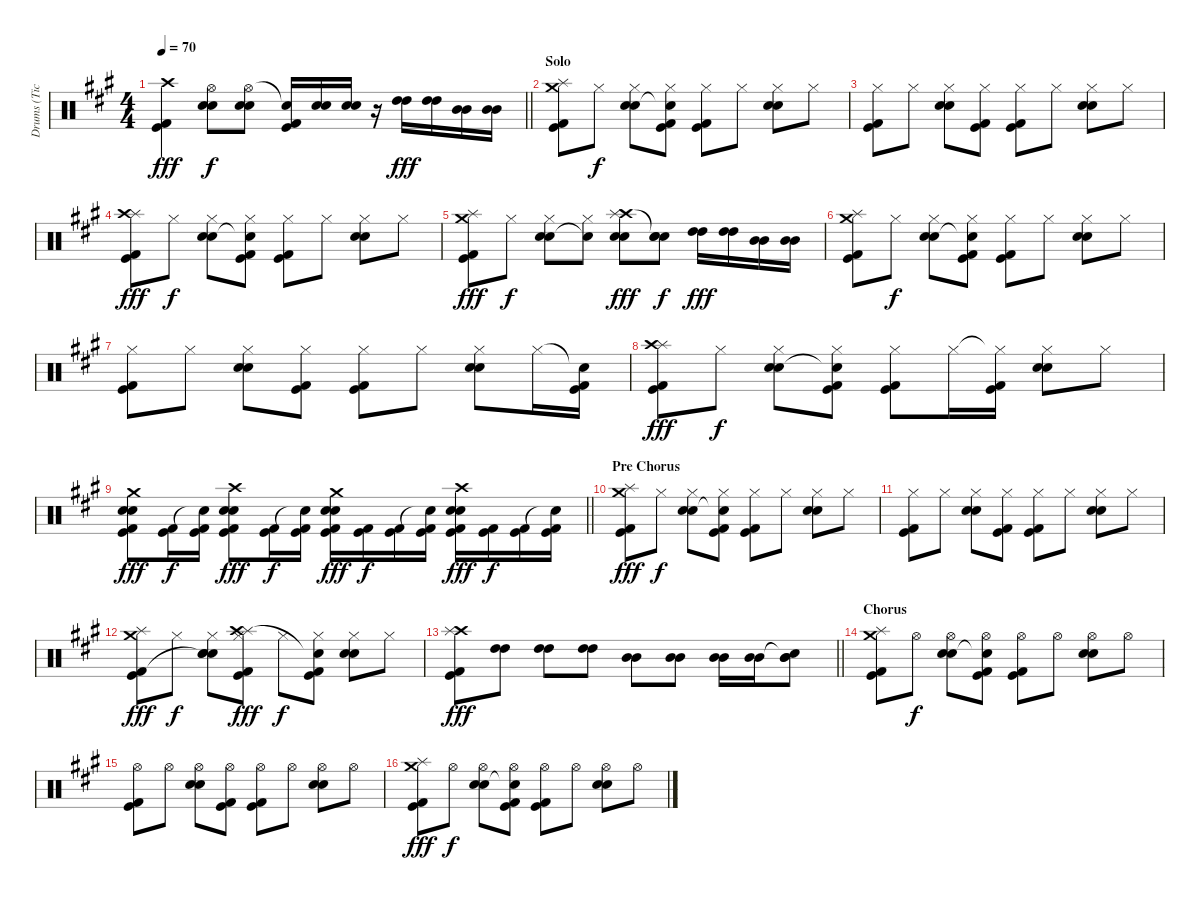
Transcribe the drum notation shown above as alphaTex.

\track ("Drums (Tico Torres)" "Drums (Tic") {instrument percussion}
\staff {score}
\articulation defaults
\ts (4 4)
\tempo 70
\clef neutral
\barLineRight lightlight
\ks a
("Crash high (hit)" "Kick (hit)" "Kick (hit) 2").4{dy fff} ("Hi-Hat (open)" "Electric Snare (hit)" "Snare (hit) 2").8{dy f} ("Hi-Hat (open)" "Electric Snare (hit)" "Snare (hit) 2").8 ("Snare (hit)"{t} "Kick (hit)" "Kick (hit) 2").16 ("Electric Snare (hit)" "Snare (hit) 2").16 ("Electric Snare (hit)" "Snare (hit) 2").16 r.16 ("High Tom (hit)" "High Tom (hit)").16{dy fff} ("High Tom (hit)" "High Tom (hit)").16 ("Mid Tom (hit)" "Mid Tom (hit)").16 ("Mid Tom (hit)" "Mid Tom (hit)").16 |
\section ("" "Solo")
("Splash (hit)" "Crash medium (hit)" "Kick (hit)" "Kick (hit) 2").8 "Hi-Hat (closed)".8{dy f} ("Hi-Hat (closed)" "Electric Snare (hit)" "Snare (hit) 2").8 ("Hi-Hat (closed)" "Snare (hit)"{t} "Kick (hit)" "Kick (hit) 2").8 ("Hi-Hat (closed)" "Kick (hit)" "Kick (hit) 2").8 "Hi-Hat (closed)".8 ("Hi-Hat (closed)" "Electric Snare (hit)" "Snare (hit) 2").8 "Hi-Hat (closed)".8 |
("Hi-Hat (closed)" "Kick (hit)" "Kick (hit) 2").8 "Hi-Hat (closed)".8 ("Hi-Hat (closed)" "Electric Snare (hit)" "Snare (hit) 2").8 ("Hi-Hat (closed)" "Kick (hit)" "Kick (hit) 2").8 ("Hi-Hat (closed)" "Kick (hit)" "Kick (hit) 2").8 "Hi-Hat (closed)".8 ("Hi-Hat (closed)" "Electric Snare (hit)" "Snare (hit) 2").8 "Hi-Hat (closed)".8 |
("Splash (hit)" "Crash high (hit)" "Kick (hit)" "Kick (hit) 2").8{dy fff} "Hi-Hat (closed)".8{dy f} ("Hi-Hat (closed)" "Electric Snare (hit)" "Snare (hit) 2").8 ("Hi-Hat (closed)" "Snare (hit)"{t} "Kick (hit)" "Kick (hit) 2").8 ("Hi-Hat (closed)" "Kick (hit)" "Kick (hit) 2").8 "Hi-Hat (closed)".8 ("Hi-Hat (closed)" "Electric Snare (hit)" "Snare (hit) 2").8 "Hi-Hat (closed)".8 |
("Splash (hit)" "Crash medium (hit)" "Kick (hit)" "Kick (hit) 2").8{dy fff} "Hi-Hat (closed)".8{dy f} ("Hi-Hat (closed)" "Electric Snare (hit)" "Snare (hit) 2").8 ("Hi-Hat (closed)" "Snare (hit)"{t}).8 ("Electric Snare (hit)" "Snare (hit) 2" "Crash high (hit)" "Splash (hit)").8{dy fff} ("Electric Snare (hit)" "Snare (hit) 2" "Snare (hit)"{t}).8{dy f} ("High Tom (hit)" "High Tom (hit)").16{dy fff} ("High Tom (hit)" "High Tom (hit)").16 ("Mid Tom (hit)" "Mid Tom (hit)").16 ("Mid Tom (hit)" "Mid Tom (hit)").16 |
("Splash (hit)" "Crash medium (hit)" "Kick (hit)" "Kick (hit) 2").8 "Hi-Hat (closed)".8{dy f} ("Hi-Hat (closed)" "Electric Snare (hit)" "Snare (hit) 2").8 ("Hi-Hat (closed)" "Snare (hit)"{t} "Kick (hit)" "Kick (hit) 2").8 ("Hi-Hat (closed)" "Kick (hit)" "Kick (hit) 2").8 "Hi-Hat (closed)".8 ("Hi-Hat (closed)" "Electric Snare (hit)" "Snare (hit) 2").8 "Hi-Hat (closed)".8 |
("Hi-Hat (closed)" "Kick (hit)" "Kick (hit) 2").8 "Hi-Hat (closed)".8 ("Hi-Hat (closed)" "Electric Snare (hit)" "Snare (hit) 2").8 ("Hi-Hat (closed)" "Kick (hit)" "Kick (hit) 2").8 ("Hi-Hat (closed)" "Kick (hit)" "Kick (hit) 2").8 "Hi-Hat (closed)".8 ("Hi-Hat (closed)" "Electric Snare (hit)" "Snare (hit) 2").8 "Hi-Hat (closed)".16 ("Snare (hit)"{t} "Kick (hit)" "Kick (hit) 2").16 |
("Splash (hit)" "Crash high (hit)" "Kick (hit)" "Kick (hit) 2").8{dy fff} "Hi-Hat (closed)".8{dy f} ("Hi-Hat (closed)" "Electric Snare (hit)" "Snare (hit) 2").8 ("Hi-Hat (closed)" "Snare (hit)"{t} "Kick (hit)" "Kick (hit) 2").8 ("Hi-Hat (closed)" "Kick (hit)" "Kick (hit) 2").8 "Hi-Hat (closed)".16 ("Hi-Hat (closed)"{t} "Kick (hit)" "Kick (hit) 2").16 ("Hi-Hat (closed)" "Electric Snare (hit)" "Snare (hit) 2").8 "Hi-Hat (closed)".8 |
\barLineRight lightlight
("Electric Snare (hit)" "Snare (hit) 2" "Crash medium (hit)" "Kick (hit)" "Kick (hit) 2").8{dy fff} ("Kick (hit)" "Kick (hit) 2").16{dy f} ("Snare (hit)"{t} "Kick (hit)" "Kick (hit) 2").16 ("Electric Snare (hit)" "Snare (hit) 2" "Crash high (hit)" "Kick (hit)" "Kick (hit) 2").8{dy fff} ("Kick (hit)" "Kick (hit) 2").16{dy f} ("Snare (hit)"{t} "Kick (hit)" "Kick (hit) 2").16 ("Electric Snare (hit)" "Snare (hit) 2" "Crash medium (hit)" "Kick (hit)" "Kick (hit) 2").16{dy fff} ("Kick (hit)" "Kick (hit) 2").16{dy f} ("Kick (hit)" "Kick (hit) 2").16 ("Snare (hit)"{t} "Kick (hit)" "Kick (hit) 2").16 ("Electric Snare (hit)" "Snare (hit) 2" "Crash high (hit)" "Kick (hit)" "Kick (hit) 2").16{dy fff} ("Kick (hit)" "Kick (hit) 2").16{dy f} ("Kick (hit)" "Kick (hit) 2").16 ("Snare (hit)"{t} "Kick (hit)" "Kick (hit) 2").16 |
\section ("" "Pre Chorus")
("Splash (hit)" "Crash medium (hit)" "Kick (hit)" "Kick (hit) 2").8{dy fff} "Hi-Hat (closed)".8{dy f} ("Hi-Hat (closed)" "Electric Snare (hit)" "Snare (hit) 2").8 ("Hi-Hat (closed)" "Snare (hit)"{t} "Kick (hit)" "Kick (hit) 2").8 ("Hi-Hat (closed)" "Kick (hit)" "Kick (hit) 2").8 "Hi-Hat (closed)".8 ("Hi-Hat (closed)" "Electric Snare (hit)" "Snare (hit) 2").8 "Hi-Hat (closed)".8 |
("Hi-Hat (closed)" "Kick (hit)" "Kick (hit) 2").8 "Hi-Hat (closed)".8 ("Hi-Hat (closed)" "Electric Snare (hit)" "Snare (hit) 2").8 ("Hi-Hat (closed)" "Kick (hit)" "Kick (hit) 2").8 ("Hi-Hat (closed)" "Kick (hit)" "Kick (hit) 2").8 "Hi-Hat (closed)".8 ("Hi-Hat (closed)" "Electric Snare (hit)" "Snare (hit) 2").8 "Hi-Hat (closed)".8 |
("Splash (hit)" "Crash medium (hit)" "Kick (hit)" "Kick (hit) 2").8{dy fff} "Hi-Hat (closed)".8{dy f} ("Hi-Hat (closed)" "Electric Snare (hit)" "Snare (hit) 2" "Snare (hit)"{t}).8 ("Hi-Hat (closed)" "Splash (hit)" "Crash high (hit)" "Kick (hit)" "Kick (hit) 2").8{dy fff} "Hi-Hat (closed)".8{dy f} ("Hi-Hat (closed)" "Snare (hit)"{t} "Kick (hit)" "Kick (hit) 2").8 ("Hi-Hat (closed)" "Electric Snare (hit)" "Snare (hit) 2").8 "Hi-Hat (closed)".8 |
\barLineRight lightlight
("Crash high (hit)" "Splash (hit)" "Kick (hit)" "Kick (hit) 2").8{dy fff} ("High Tom (hit)" "High Tom (hit)").8 ("High Tom (hit)" "High Tom (hit)").8 ("High Tom (hit)" "High Tom (hit)").8 ("Mid Tom (hit)" "Mid Tom (hit)").8 ("Mid Tom (hit)" "Mid Tom (hit)").8 ("Mid Tom (hit)" "Mid Tom (hit)").16 ("Mid Tom (hit)" "Mid Tom (hit)").16 ("Snare (hit)"{t} "Mid Tom (hit)" "Mid Tom (hit)").8 |
\section ("" "Chorus")
("Splash (hit)" "Crash medium (hit)" "Kick (hit)" "Kick (hit) 2").8 "Hi-Hat (open)".8{dy f} ("Hi-Hat (open)" "Electric Snare (hit)" "Snare (hit) 2").8 ("Hi-Hat (open)" "Snare (hit)"{t} "Kick (hit)" "Kick (hit) 2").8 ("Hi-Hat (open)" "Kick (hit)" "Kick (hit) 2").8 "Hi-Hat (open)".8 ("Hi-Hat (open)" "Electric Snare (hit)" "Snare (hit) 2").8 "Hi-Hat (open)".8 |
("Hi-Hat (open)" "Kick (hit)" "Kick (hit) 2").8 "Hi-Hat (open)".8 ("Hi-Hat (open)" "Electric Snare (hit)" "Snare (hit) 2").8 ("Hi-Hat (open)" "Kick (hit)" "Kick (hit) 2").8 ("Hi-Hat (open)" "Kick (hit)" "Kick (hit) 2").8 "Hi-Hat (open)".8 ("Hi-Hat (open)" "Electric Snare (hit)" "Snare (hit) 2").8 "Hi-Hat (open)".8 |
("Splash (hit)" "Crash medium (hit)" "Kick (hit)" "Kick (hit) 2").8{dy fff} "Hi-Hat (open)".8{dy f} ("Hi-Hat (open)" "Electric Snare (hit)" "Snare (hit) 2").8 ("Hi-Hat (open)" "Snare (hit)"{t} "Kick (hit)" "Kick (hit) 2").8 ("Hi-Hat (open)" "Kick (hit)" "Kick (hit) 2").8 "Hi-Hat (open)".8 ("Hi-Hat (open)" "Electric Snare (hit)" "Snare (hit) 2").8 "Hi-Hat (open)".8
